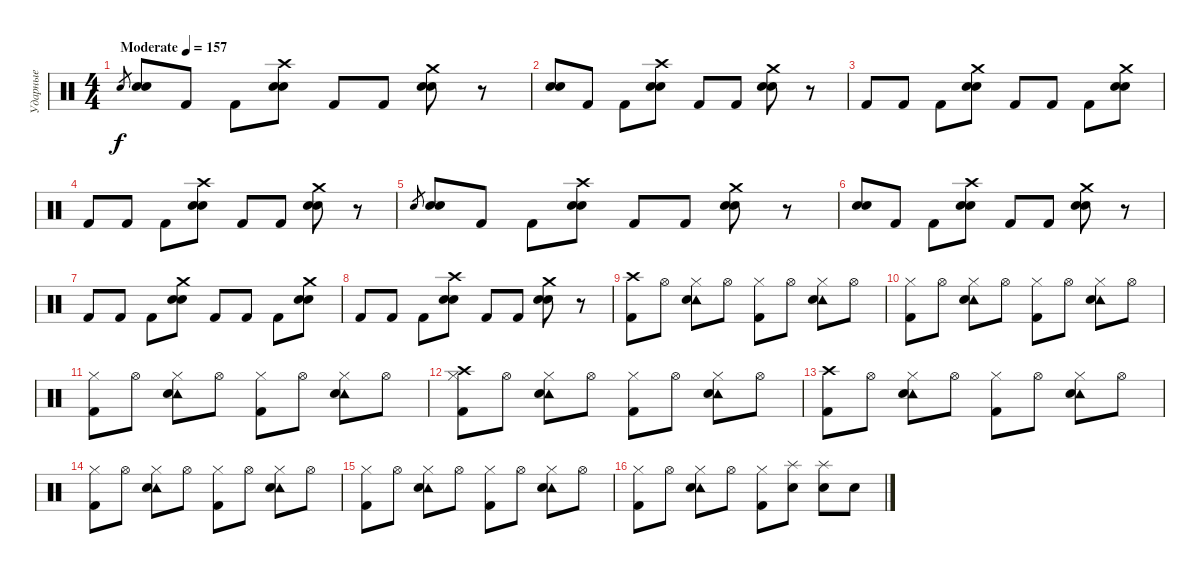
\track ("Ударные" "Ударные") {instrument percussion}
\staff {score}
\articulation defaults
\ts (4 4)
\tempo (157 "Moderate")
\clef neutral
\ks c "Electric Snare (hit)".8{gr dy f}
("Snare (hit) 2" "Electric Snare (hit)").8 "Kick (hit) 2".8 "Kick (hit) 2".8 ("Crash high (hit)" "Snare (hit) 2" "Electric Snare (hit)").8 "Kick (hit) 2".8 "Kick (hit) 2".8 ("Crash medium (hit)" "Snare (hit) 2" "Electric Snare (hit)").8 r.8 |
("Snare (hit) 2" "Electric Snare (hit)").8 "Kick (hit) 2".8 "Kick (hit) 2".8 ("Crash high (hit)" "Snare (hit) 2" "Electric Snare (hit)").8 "Kick (hit) 2".8 "Kick (hit) 2".8 ("Crash medium (hit)" "Snare (hit) 2" "Electric Snare (hit)").8 r.8 |
"Kick (hit) 2".8 "Kick (hit) 2".8 "Kick (hit) 2".8 ("Crash medium (hit)" "Snare (hit) 2" "Electric Snare (hit)").8 "Kick (hit) 2".8 "Kick (hit) 2".8 "Kick (hit) 2".8 ("Crash medium (hit)" "Snare (hit) 2" "Electric Snare (hit)").8 |
"Kick (hit) 2".8 "Kick (hit) 2".8 "Kick (hit) 2".8 ("Crash high (hit)" "Snare (hit) 2" "Electric Snare (hit)").8 "Kick (hit) 2".8 "Kick (hit) 2".8 ("Crash medium (hit)" "Snare (hit) 2" "Electric Snare (hit)").8 r.8 |
"Electric Snare (hit)".8{gr} ("Snare (hit) 2" "Electric Snare (hit)").8 "Kick (hit) 2".8 "Kick (hit) 2".8 ("Crash high (hit)" "Snare (hit) 2" "Electric Snare (hit)").8 "Kick (hit) 2".8 "Kick (hit) 2".8 ("Crash medium (hit)" "Snare (hit) 2" "Electric Snare (hit)").8 r.8 |
("Snare (hit) 2" "Electric Snare (hit)").8 "Kick (hit) 2".8 "Kick (hit) 2".8 ("Crash high (hit)" "Snare (hit) 2" "Electric Snare (hit)").8 "Kick (hit) 2".8 "Kick (hit) 2".8 ("Crash medium (hit)" "Snare (hit) 2" "Electric Snare (hit)").8 r.8 |
"Kick (hit) 2".8 "Kick (hit) 2".8 "Kick (hit) 2".8 ("Crash medium (hit)" "Snare (hit) 2" "Electric Snare (hit)").8 "Kick (hit) 2".8 "Kick (hit) 2".8 "Kick (hit) 2".8 ("Crash medium (hit)" "Snare (hit) 2" "Electric Snare (hit)").8 |
"Kick (hit) 2".8 "Kick (hit) 2".8 "Kick (hit) 2".8 ("Crash high (hit)" "Snare (hit) 2" "Electric Snare (hit)").8 "Kick (hit) 2".8 "Kick (hit) 2".8 ("Crash medium (hit)" "Snare (hit) 2" "Electric Snare (hit)").8 r.8 |
("Crash high (hit)" "Kick (hit) 2").8 "Hi-Hat (open)".8 ("Tambourine (hit)" "Electric Snare (hit)" "Hi-Hat (closed)").8 "Hi-Hat (open)".8 ("Hi-Hat (closed)" "Kick (hit) 2").8 "Hi-Hat (open)".8 ("Tambourine (hit)" "Electric Snare (hit)" "Hi-Hat (closed)").8 "Hi-Hat (open)".8 |
("Hi-Hat (closed)" "Kick (hit) 2").8 "Hi-Hat (open)".8 ("Tambourine (hit)" "Electric Snare (hit)" "Hi-Hat (closed)").8 "Hi-Hat (open)".8 ("Hi-Hat (closed)" "Kick (hit) 2").8 "Hi-Hat (open)".8 ("Tambourine (hit)" "Electric Snare (hit)" "Hi-Hat (closed)").8 "Hi-Hat (open)".8 |
("Hi-Hat (closed)" "Kick (hit) 2").8 "Hi-Hat (open)".8 ("Tambourine (hit)" "Electric Snare (hit)" "Hi-Hat (closed)").8 "Hi-Hat (open)".8 ("Hi-Hat (closed)" "Kick (hit) 2").8 "Hi-Hat (open)".8 ("Tambourine (hit)" "Electric Snare (hit)" "Hi-Hat (closed)").8 "Hi-Hat (open)".8 |
("Crash high (hit)" "Hi-Hat (closed)" "Kick (hit) 2").8 "Hi-Hat (open)".8 ("Tambourine (hit)" "Electric Snare (hit)" "Hi-Hat (closed)").8 "Hi-Hat (open)".8 ("Hi-Hat (closed)" "Kick (hit) 2").8 "Hi-Hat (open)".8 ("Tambourine (hit)" "Electric Snare (hit)" "Hi-Hat (closed)").8 "Hi-Hat (open)".8 |
("Crash high (hit)" "Kick (hit) 2").8 "Hi-Hat (open)".8 ("Tambourine (hit)" "Electric Snare (hit)" "Hi-Hat (closed)").8 "Hi-Hat (open)".8 ("Hi-Hat (closed)" "Kick (hit) 2").8 "Hi-Hat (open)".8 ("Tambourine (hit)" "Electric Snare (hit)" "Hi-Hat (closed)").8 "Hi-Hat (open)".8 |
("Hi-Hat (closed)" "Kick (hit) 2").8 "Hi-Hat (open)".8 ("Tambourine (hit)" "Electric Snare (hit)" "Hi-Hat (closed)").8 "Hi-Hat (open)".8 ("Hi-Hat (closed)" "Kick (hit) 2").8 "Hi-Hat (open)".8 ("Tambourine (hit)" "Electric Snare (hit)" "Hi-Hat (closed)").8 "Hi-Hat (open)".8 |
("Hi-Hat (closed)" "Kick (hit) 2").8 "Hi-Hat (open)".8 ("Tambourine (hit)" "Electric Snare (hit)" "Hi-Hat (closed)").8 "Hi-Hat (open)".8 ("Hi-Hat (closed)" "Kick (hit) 2").8 "Hi-Hat (open)".8 ("Tambourine (hit)" "Electric Snare (hit)" "Hi-Hat (closed)").8 "Hi-Hat (open)".8 |
("Hi-Hat (closed)" "Kick (hit) 2").8 "Hi-Hat (open)".8 ("Tambourine (hit)" "Electric Snare (hit)" "Hi-Hat (closed)").8 "Hi-Hat (open)".8 ("Hi-Hat (closed)" "Kick (hit) 2").8 ("Splash (hit)" "Electric Snare (hit)").8 ("Splash (hit)" "Electric Snare (hit)").8 "Electric Snare (hit)".8
